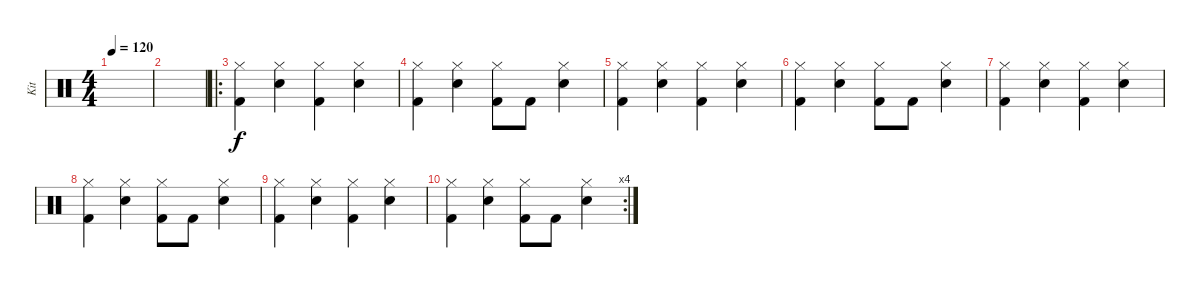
\track ("Kit" "Kit") {instrument percussion}
\staff {score}
\articulation defaults
\ts (4 4)
\tempo 120
\clef neutral
\ks c
|
|
\ro
("Hi-Hat (closed)" "Kick (hit) 2").4 ("Hi-Hat (closed)" "Snare (hit) 2").4 ("Hi-Hat (closed)" "Kick (hit) 2").4 ("Hi-Hat (closed)" "Snare (hit) 2").4 |
("Hi-Hat (closed)" "Kick (hit) 2").4 ("Hi-Hat (closed)" "Snare (hit) 2").4 ("Hi-Hat (closed)" "Kick (hit) 2").8 "Kick (hit) 2".8 ("Hi-Hat (closed)" "Snare (hit) 2").4 |
("Hi-Hat (closed)" "Kick (hit) 2").4 ("Hi-Hat (closed)" "Snare (hit) 2").4 ("Hi-Hat (closed)" "Kick (hit) 2").4 ("Hi-Hat (closed)" "Snare (hit) 2").4 |
("Hi-Hat (closed)" "Kick (hit) 2").4 ("Hi-Hat (closed)" "Snare (hit) 2").4 ("Hi-Hat (closed)" "Kick (hit) 2").8 "Kick (hit) 2".8 ("Hi-Hat (closed)" "Snare (hit) 2").4 |
("Hi-Hat (closed)" "Kick (hit) 2").4 ("Hi-Hat (closed)" "Snare (hit) 2").4 ("Hi-Hat (closed)" "Kick (hit) 2").4 ("Hi-Hat (closed)" "Snare (hit) 2").4 |
("Hi-Hat (closed)" "Kick (hit) 2").4 ("Hi-Hat (closed)" "Snare (hit) 2").4 ("Hi-Hat (closed)" "Kick (hit) 2").8 "Kick (hit) 2".8 ("Hi-Hat (closed)" "Snare (hit) 2").4 |
("Hi-Hat (closed)" "Kick (hit) 2").4 ("Hi-Hat (closed)" "Snare (hit) 2").4 ("Hi-Hat (closed)" "Kick (hit) 2").4 ("Hi-Hat (closed)" "Snare (hit) 2").4 |
\rc 4
("Hi-Hat (closed)" "Kick (hit) 2").4 ("Hi-Hat (closed)" "Snare (hit) 2").4 ("Hi-Hat (closed)" "Kick (hit) 2").8 "Kick (hit) 2".8 ("Hi-Hat (closed)" "Snare (hit) 2").4
